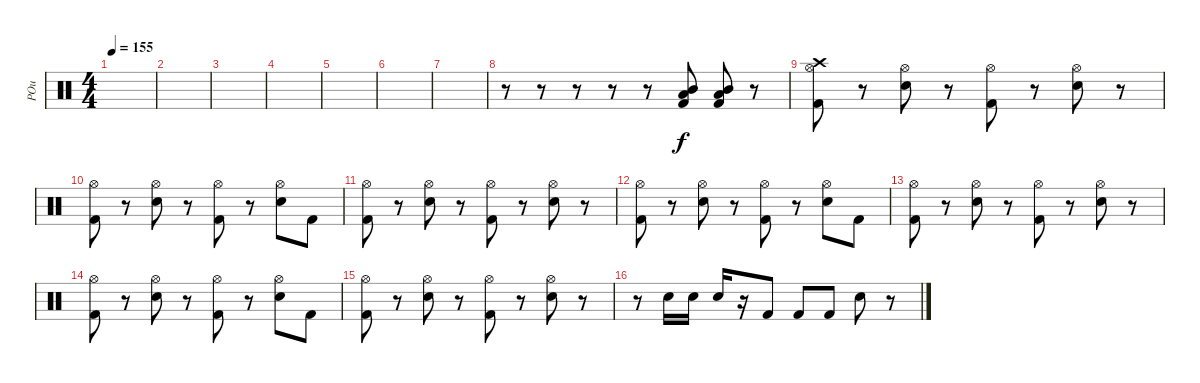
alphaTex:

\track ("POu" "POu") {instrument percussion}
\staff {score}
\articulation defaults
\ts (4 4)
\tempo 155
\clef neutral
\ks c
|
|
|
|
|
|
|
r.8 r.8 r.8 r.8 r.8 ("Mid Tom (hit)" "Low Tom (hit)" "Kick (hit) 2").8 ("Mid Tom (hit)" "Low Tom (hit)" "Kick (hit) 2").8 r.8 |
("Crash high (hit)" "Kick (hit) 2" "Hi-Hat (open)").8 r.8 ("Electric Snare (hit)" "Hi-Hat (open)").8 r.8 ("Kick (hit) 2" "Hi-Hat (open)").8 r.8 ("Electric Snare (hit)" "Hi-Hat (open)").8 r.8 |
("Kick (hit) 2" "Hi-Hat (open)").8 r.8 ("Electric Snare (hit)" "Hi-Hat (open)").8 r.8 ("Kick (hit) 2" "Hi-Hat (open)").8 r.8 ("Electric Snare (hit)" "Hi-Hat (open)").8 "Kick (hit) 2".8 |
("Kick (hit) 2" "Hi-Hat (open)").8 r.8 ("Electric Snare (hit)" "Hi-Hat (open)").8 r.8 ("Kick (hit) 2" "Hi-Hat (open)").8 r.8 ("Electric Snare (hit)" "Hi-Hat (open)").8 r.8 |
("Kick (hit) 2" "Hi-Hat (open)").8 r.8 ("Electric Snare (hit)" "Hi-Hat (open)").8 r.8 ("Kick (hit) 2" "Hi-Hat (open)").8 r.8 ("Electric Snare (hit)" "Hi-Hat (open)").8 "Kick (hit) 2".8 |
("Kick (hit) 2" "Hi-Hat (open)").8 r.8 ("Electric Snare (hit)" "Hi-Hat (open)").8 r.8 ("Kick (hit) 2" "Hi-Hat (open)").8 r.8 ("Electric Snare (hit)" "Hi-Hat (open)").8 r.8 |
("Kick (hit) 2" "Hi-Hat (open)").8 r.8 ("Electric Snare (hit)" "Hi-Hat (open)").8 r.8 ("Kick (hit) 2" "Hi-Hat (open)").8 r.8 ("Electric Snare (hit)" "Hi-Hat (open)").8 "Kick (hit) 2".8 |
("Kick (hit) 2" "Hi-Hat (open)").8 r.8 ("Electric Snare (hit)" "Hi-Hat (open)").8 r.8 ("Kick (hit) 2" "Hi-Hat (open)").8 r.8 ("Electric Snare (hit)" "Hi-Hat (open)").8 r.8 |
r.8 "Electric Snare (hit)".16 "Electric Snare (hit)".16 "Electric Snare (hit)".16 r.16 "Kick (hit) 2".8 "Kick (hit) 2".8 "Kick (hit) 2".8 "Electric Snare (hit)".8 r.8
